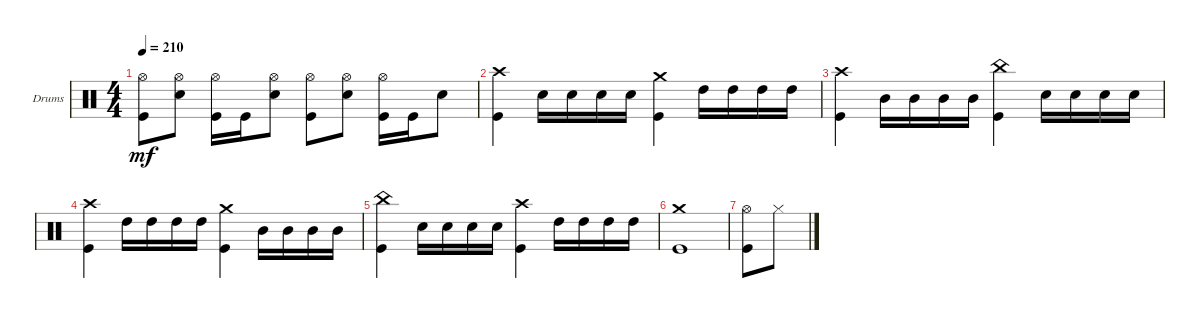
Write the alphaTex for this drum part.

\bracketExtendMode groupsimilarinstruments
\firstSystemTrackNameOrientation horizontal
\otherSystemsTrackNameOrientation horizontal
\track ("Drumkit" "Drums") {instrument percussion}
\staff {score}
\articulation defaults
\ts (4 4)
\tempo 210
\clef neutral
\ks c
("Hi-Hat (open)" "Kick (hit)").8{dy mf} ("Hi-Hat (open)" "Snare (hit) 2").8 ("Hi-Hat (open)" "Kick (hit)").16 "Kick (hit)".16 ("Hi-Hat (open)" "Snare (hit) 2").8 ("Hi-Hat (open)" "Kick (hit)").8 ("Hi-Hat (open)" "Snare (hit) 2").8 ("Hi-Hat (open)" "Kick (hit)").16 "Kick (hit)".16 "Snare (hit) 2".8 |
("Kick (hit)" "Crash high (hit)").4 "Snare (hit) 2".16 "Snare (hit) 2".16 "Snare (hit) 2".16 "Snare (hit) 2".16 ("Kick (hit)" "Crash medium (hit)").4 "High Tom (hit)".16 "High Tom (hit)".16 "High Tom (hit)".16 "High Tom (hit)".16 |
("Kick (hit)" "Crash high (hit)").4 "Mid Tom (hit)".16 "Mid Tom (hit)".16 "Mid Tom (hit)".16 "Mid Tom (hit)".16 ("Kick (hit)" "China (hit)").4 "Snare (hit) 2".16 "Snare (hit) 2".16 "Snare (hit) 2".16 "Snare (hit) 2".16 |
("Kick (hit)" "Crash high (hit)").4 "High Tom (hit)".16 "High Tom (hit)".16 "High Tom (hit)".16 "High Tom (hit)".16 ("Kick (hit)" "Crash medium (hit)").4 "Mid Tom (hit)".16 "Mid Tom (hit)".16 "Mid Tom (hit)".16 "Mid Tom (hit)".16 |
("Kick (hit)" "China (hit)").4 "Snare (hit) 2".16 "Snare (hit) 2".16 "Snare (hit) 2".16 "Snare (hit) 2".16 ("Kick (hit)" "Crash high (hit)").4 "High Tom (hit)".16 "High Tom (hit)".16 "High Tom (hit)".16 "High Tom (hit)".16 |
("Kick (hit)" "Crash medium (hit)").1 |
("Kick (hit)" "Hi-Hat (open)").8 "Hi-Hat (closed)".8
